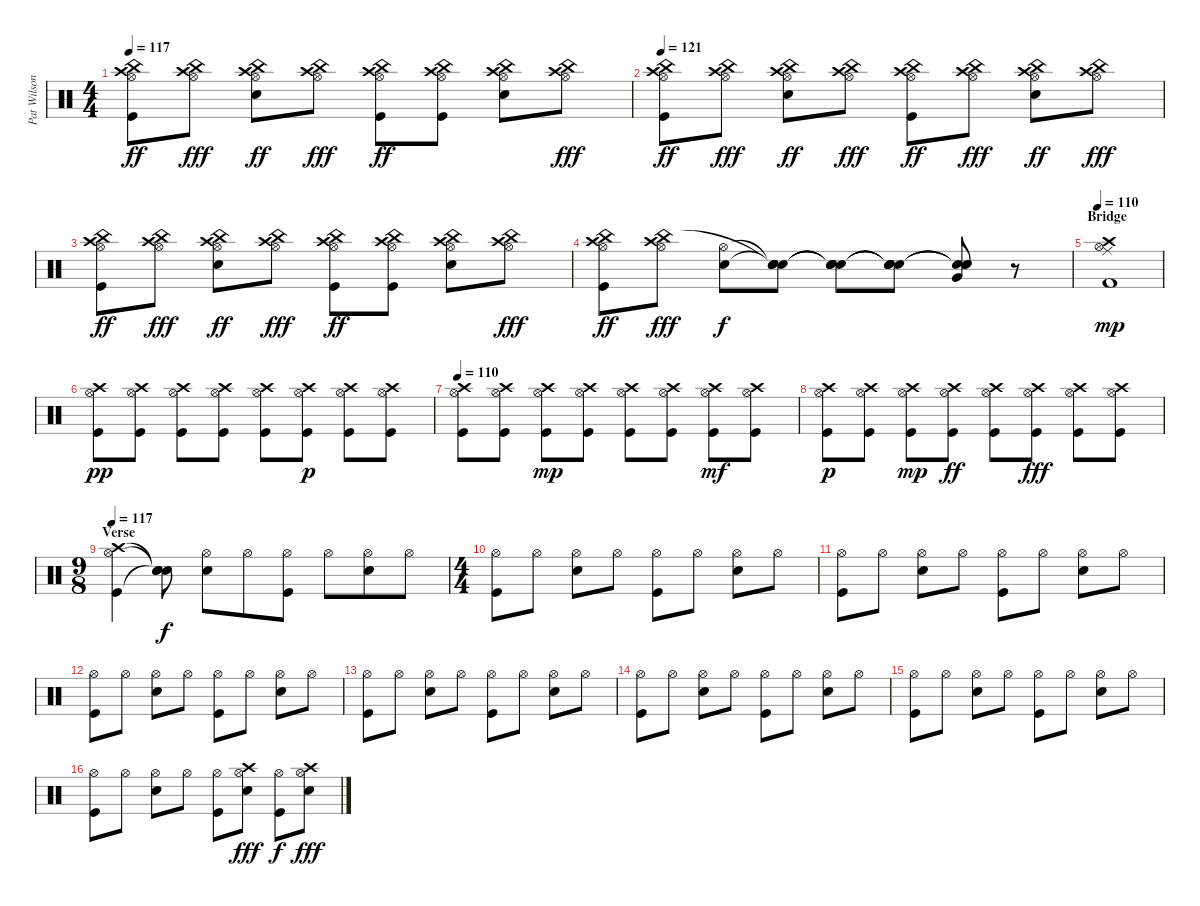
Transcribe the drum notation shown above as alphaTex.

\track ("Pat Wilson" "Pat Wilson") {instrument percussion}
\staff {score}
\articulation defaults
\ts (4 4)
\tempo 117
\clef neutral
\ks c
("Crash high (hit)" "Hi-Hat (open)" "China (hit)" "Kick (hit)").8{dy ff} ("Crash high (hit)" "Hi-Hat (open)" "China (hit)").8{dy fff} ("Crash high (hit)" "Hi-Hat (open)" "China (hit)" "Electric Snare (hit)").8{dy ff} ("Crash high (hit)" "Hi-Hat (open)" "China (hit)").8{dy fff} ("Crash high (hit)" "Hi-Hat (open)" "China (hit)" "Kick (hit)").8{dy ff} ("Crash high (hit)" "Hi-Hat (open)" "China (hit)" "Kick (hit)").8 ("Crash high (hit)" "Hi-Hat (open)" "China (hit)" "Electric Snare (hit)").8 ("Crash high (hit)" "Hi-Hat (open)" "China (hit)").8{dy fff} |
\tempo 121
("Crash high (hit)" "Hi-Hat (open)" "China (hit)" "Kick (hit)").8{dy ff} ("Crash high (hit)" "Hi-Hat (open)" "China (hit)").8{dy fff} ("Crash high (hit)" "Hi-Hat (open)" "China (hit)" "Electric Snare (hit)").8{dy ff} ("Crash high (hit)" "Hi-Hat (open)" "China (hit)").8{dy fff} ("Crash high (hit)" "Hi-Hat (open)" "China (hit)" "Kick (hit)").8{dy ff} ("Crash high (hit)" "Hi-Hat (open)" "China (hit)").8{dy fff} ("Crash high (hit)" "Hi-Hat (open)" "China (hit)" "Electric Snare (hit)").8{dy ff} ("Crash high (hit)" "Hi-Hat (open)" "China (hit)").8{dy fff} |
("Crash high (hit)" "Hi-Hat (open)" "China (hit)" "Kick (hit)").8{dy ff} ("Crash high (hit)" "Hi-Hat (open)" "China (hit)").8{dy fff} ("Crash high (hit)" "Hi-Hat (open)" "China (hit)" "Electric Snare (hit)").8{dy ff} ("Crash high (hit)" "Hi-Hat (open)" "China (hit)").8{dy fff} ("Crash high (hit)" "Hi-Hat (open)" "China (hit)" "Kick (hit)").8{dy ff} ("Crash high (hit)" "Hi-Hat (open)" "China (hit)" "Kick (hit)").8 ("Crash high (hit)" "Hi-Hat (open)" "China (hit)" "Electric Snare (hit)").8 ("Crash high (hit)" "Hi-Hat (open)" "China (hit)").8{dy fff} |
("Crash high (hit)" "Hi-Hat (open)" "China (hit)" "Kick (hit)").8{dy ff} ("Crash high (hit)" "Hi-Hat (open)" "China (hit)").8{dy fff} ("Hi-Hat (open)" "Electric Snare (hit)").8{dy f} ("Snare (hit)"{t} "Snare (hit)"{t} "Snare (hit)"{t} "Electric Snare (hit)").8 ("Snare (hit)"{t} "Snare (hit)"{t} "Snare (hit)"{t} "Snare (hit) 2").8 ("Snare (hit)"{t} "Snare (hit)"{t} "Snare (hit)"{t} "Electric Snare (hit)").8 ("Snare (hit)"{t} "Snare (hit)"{t} "Snare (hit)"{t} "Very Low Tom (hit)").8 r.8 |
\section ("" "Bridge")
\tempo 110
("Crash high (hit)" "Ride (middle)" "Kick (hit) 2" "Hi-Hat (open)").1{dy mp} |
("Crash high (hit)" "Hi-Hat (open)" "Kick (hit)").8{dy pp} ("Crash high (hit)" "Hi-Hat (open)" "Kick (hit)").8 ("Crash high (hit)" "Hi-Hat (open)" "Kick (hit)").8 ("Crash high (hit)" "Hi-Hat (open)" "Kick (hit)").8 ("Crash high (hit)" "Hi-Hat (open)" "Kick (hit)").8 ("Crash high (hit)" "Hi-Hat (open)" "Kick (hit)").8{dy p} ("Crash high (hit)" "Hi-Hat (open)" "Kick (hit)").8 ("Crash high (hit)" "Hi-Hat (open)" "Kick (hit)").8 |
\tempo 110
("Crash high (hit)" "Hi-Hat (open)" "Kick (hit)").8 ("Crash high (hit)" "Hi-Hat (open)" "Kick (hit)").8 ("Crash high (hit)" "Hi-Hat (open)" "Kick (hit)").8{dy mp} ("Crash high (hit)" "Hi-Hat (open)" "Kick (hit)").8 ("Crash high (hit)" "Hi-Hat (open)" "Kick (hit)").8 ("Crash high (hit)" "Hi-Hat (open)" "Kick (hit)").8 ("Crash high (hit)" "Hi-Hat (open)" "Kick (hit)").8{dy mf} ("Crash high (hit)" "Hi-Hat (open)" "Kick (hit)").8 |
("Crash high (hit)" "Hi-Hat (open)" "Kick (hit)").8{dy p} ("Crash high (hit)" "Hi-Hat (open)" "Kick (hit)").8 ("Crash high (hit)" "Hi-Hat (open)" "Kick (hit)").8{dy mp} ("Crash high (hit)" "Hi-Hat (open)" "Kick (hit)").8{dy ff} ("Crash high (hit)" "Hi-Hat (open)" "Kick (hit)").8 ("Crash high (hit)" "Hi-Hat (open)" "Kick (hit)").8{dy fff} ("Crash high (hit)" "Hi-Hat (open)" "Kick (hit)").8 ("Crash high (hit)" "Hi-Hat (open)" "Kick (hit)").8 |
\ts (9 8)
\section ("" "Verse")
\tempo 117
("Crash high (hit)" "Hi-Hat (open)" "Kick (hit)").4 ("Snare (hit)"{t} "Snare (hit)"{t} "Snare (hit)"{t}).8{dy f} ("Hi-Hat (open)" "Snare (hit) 2").8 "Hi-Hat (open)".8 ("Hi-Hat (open)" "Kick (hit)").8 "Hi-Hat (open)".8 ("Hi-Hat (open)" "Snare (hit) 2").8 "Hi-Hat (open)".8 |
\ts (4 4)
("Hi-Hat (open)" "Kick (hit)").8 "Hi-Hat (open)".8 ("Hi-Hat (open)" "Snare (hit) 2").8 "Hi-Hat (open)".8 ("Hi-Hat (open)" "Kick (hit)").8 "Hi-Hat (open)".8 ("Hi-Hat (open)" "Snare (hit) 2").8 "Hi-Hat (open)".8 |
("Hi-Hat (open)" "Kick (hit)").8 "Hi-Hat (open)".8 ("Hi-Hat (open)" "Snare (hit) 2").8 "Hi-Hat (open)".8 ("Hi-Hat (open)" "Kick (hit)").8 "Hi-Hat (open)".8 ("Hi-Hat (open)" "Snare (hit) 2").8 "Hi-Hat (open)".8 |
("Hi-Hat (open)" "Kick (hit)").8 "Hi-Hat (open)".8 ("Hi-Hat (open)" "Snare (hit) 2").8 "Hi-Hat (open)".8 ("Hi-Hat (open)" "Kick (hit)").8 "Hi-Hat (open)".8 ("Hi-Hat (open)" "Snare (hit) 2").8 "Hi-Hat (open)".8 |
("Hi-Hat (open)" "Kick (hit)").8 "Hi-Hat (open)".8 ("Hi-Hat (open)" "Snare (hit) 2").8 "Hi-Hat (open)".8 ("Hi-Hat (open)" "Kick (hit)").8 "Hi-Hat (open)".8 ("Hi-Hat (open)" "Snare (hit) 2").8 "Hi-Hat (open)".8 |
("Hi-Hat (open)" "Kick (hit)").8 "Hi-Hat (open)".8 ("Hi-Hat (open)" "Snare (hit) 2").8 "Hi-Hat (open)".8 ("Hi-Hat (open)" "Kick (hit)").8 "Hi-Hat (open)".8 ("Hi-Hat (open)" "Snare (hit) 2").8 "Hi-Hat (open)".8 |
("Hi-Hat (open)" "Kick (hit)").8 "Hi-Hat (open)".8 ("Hi-Hat (open)" "Snare (hit) 2").8 "Hi-Hat (open)".8 ("Hi-Hat (open)" "Kick (hit)").8 "Hi-Hat (open)".8 ("Hi-Hat (open)" "Snare (hit) 2").8 "Hi-Hat (open)".8 |
("Hi-Hat (open)" "Kick (hit)").8 "Hi-Hat (open)".8 ("Hi-Hat (open)" "Snare (hit) 2").8 "Hi-Hat (open)".8 ("Hi-Hat (open)" "Kick (hit)").8 ("Crash high (hit)" "Hi-Hat (open)" "Snare (hit) 2").8{dy fff} ("Hi-Hat (open)" "Kick (hit)").8{dy f} ("Crash high (hit)" "Hi-Hat (open)" "Snare (hit) 2").8{dy fff}
